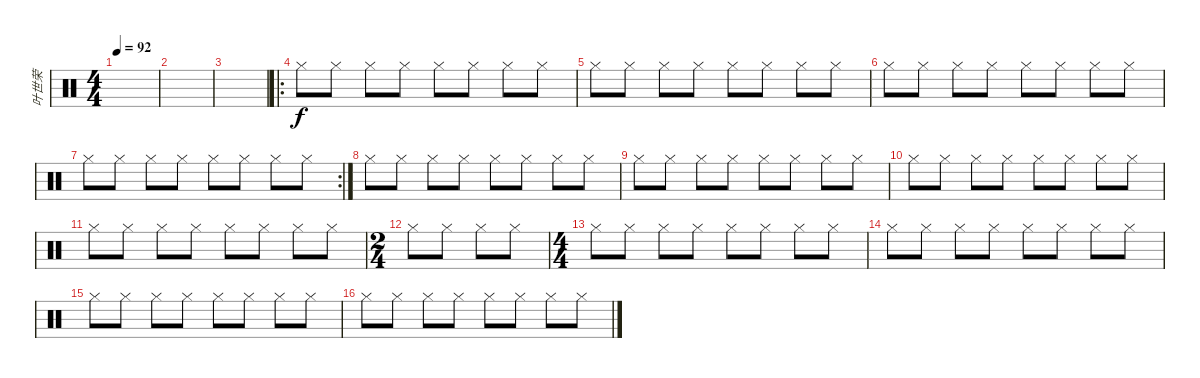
\track ("叶世荣" "叶世荣") {instrument percussion}
\staff {score}
\articulation defaults
\ts (4 4)
\tempo 92
\clef neutral
\ks c
|
|
|
\ro "Hi-Hat (closed)".8 "Hi-Hat (closed)".8 "Hi-Hat (closed)".8 "Hi-Hat (closed)".8 "Hi-Hat (closed)".8 "Hi-Hat (closed)".8 "Hi-Hat (closed)".8 "Hi-Hat (closed)".8
|
"Hi-Hat (closed)".8 "Hi-Hat (closed)".8 "Hi-Hat (closed)".8 "Hi-Hat (closed)".8 "Hi-Hat (closed)".8 "Hi-Hat (closed)".8 "Hi-Hat (closed)".8 "Hi-Hat (closed)".8 |
"Hi-Hat (closed)".8 "Hi-Hat (closed)".8 "Hi-Hat (closed)".8 "Hi-Hat (closed)".8 "Hi-Hat (closed)".8 "Hi-Hat (closed)".8 "Hi-Hat (closed)".8 "Hi-Hat (closed)".8 |
\rc 2 "Hi-Hat (closed)".8 "Hi-Hat (closed)".8 "Hi-Hat (closed)".8 "Hi-Hat (closed)".8 "Hi-Hat (closed)".8 "Hi-Hat (closed)".8 "Hi-Hat (closed)".8 "Hi-Hat (closed)".8
|
"Hi-Hat (closed)".8 "Hi-Hat (closed)".8 "Hi-Hat (closed)".8 "Hi-Hat (closed)".8 "Hi-Hat (closed)".8 "Hi-Hat (closed)".8 "Hi-Hat (closed)".8 "Hi-Hat (closed)".8 |
"Hi-Hat (closed)".8 "Hi-Hat (closed)".8 "Hi-Hat (closed)".8 "Hi-Hat (closed)".8 "Hi-Hat (closed)".8 "Hi-Hat (closed)".8 "Hi-Hat (closed)".8 "Hi-Hat (closed)".8 |
"Hi-Hat (closed)".8 "Hi-Hat (closed)".8 "Hi-Hat (closed)".8 "Hi-Hat (closed)".8 "Hi-Hat (closed)".8 "Hi-Hat (closed)".8 "Hi-Hat (closed)".8 "Hi-Hat (closed)".8 |
"Hi-Hat (closed)".8 "Hi-Hat (closed)".8 "Hi-Hat (closed)".8 "Hi-Hat (closed)".8 "Hi-Hat (closed)".8 "Hi-Hat (closed)".8 "Hi-Hat (closed)".8 "Hi-Hat (closed)".8 |
\ts (2 4)
"Hi-Hat (closed)".8 "Hi-Hat (closed)".8 "Hi-Hat (closed)".8 "Hi-Hat (closed)".8 |
\ts (4 4)
"Hi-Hat (closed)".8 "Hi-Hat (closed)".8 "Hi-Hat (closed)".8 "Hi-Hat (closed)".8 "Hi-Hat (closed)".8 "Hi-Hat (closed)".8 "Hi-Hat (closed)".8 "Hi-Hat (closed)".8 |
"Hi-Hat (closed)".8 "Hi-Hat (closed)".8 "Hi-Hat (closed)".8 "Hi-Hat (closed)".8 "Hi-Hat (closed)".8 "Hi-Hat (closed)".8 "Hi-Hat (closed)".8 "Hi-Hat (closed)".8 |
"Hi-Hat (closed)".8 "Hi-Hat (closed)".8 "Hi-Hat (closed)".8 "Hi-Hat (closed)".8 "Hi-Hat (closed)".8 "Hi-Hat (closed)".8 "Hi-Hat (closed)".8 "Hi-Hat (closed)".8 |
"Hi-Hat (closed)".8 "Hi-Hat (closed)".8 "Hi-Hat (closed)".8 "Hi-Hat (closed)".8 "Hi-Hat (closed)".8 "Hi-Hat (closed)".8 "Hi-Hat (closed)".8 "Hi-Hat (closed)".8
